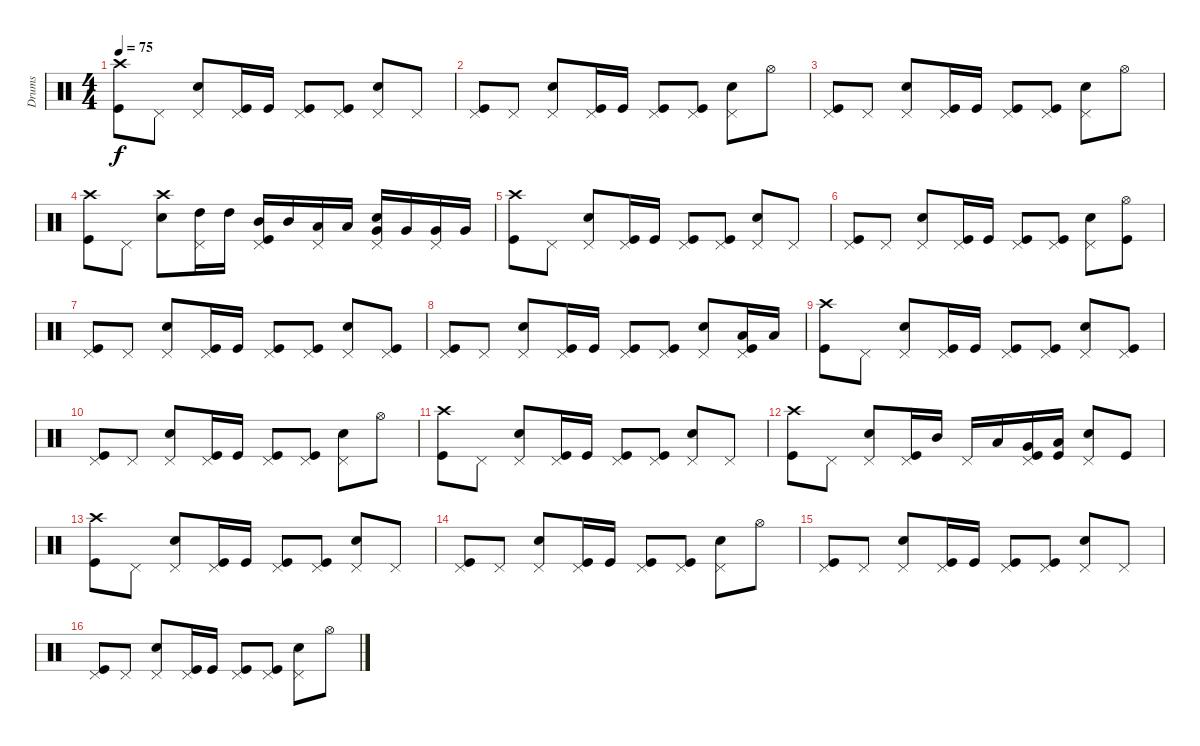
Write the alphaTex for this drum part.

\track ("Drums" "Drums") {instrument percussion}
\staff {score}
\articulation defaults
\ts (4 4)
\tempo 75
\clef neutral
\ks c
("Crash high (hit)" "Kick (hit)").8{dy f} "Pedal Hi-Hat (hit)".8 ("Pedal Hi-Hat (hit)" "Electric Snare (hit)").8 ("Pedal Hi-Hat (hit)" "Kick (hit)").16 "Kick (hit)".16 ("Pedal Hi-Hat (hit)" "Kick (hit)").8 ("Pedal Hi-Hat (hit)" "Kick (hit)").8 ("Pedal Hi-Hat (hit)" "Electric Snare (hit)").8 "Pedal Hi-Hat (hit)".8 |
("Pedal Hi-Hat (hit)" "Kick (hit)").8 "Pedal Hi-Hat (hit)".8 ("Pedal Hi-Hat (hit)" "Electric Snare (hit)").8 ("Pedal Hi-Hat (hit)" "Kick (hit)").16 "Kick (hit)".16 ("Pedal Hi-Hat (hit)" "Kick (hit)").8 ("Pedal Hi-Hat (hit)" "Kick (hit)").8 ("Pedal Hi-Hat (hit)" "Electric Snare (hit)").8 "Hi-Hat (open)".8 |
("Pedal Hi-Hat (hit)" "Kick (hit)").8 "Pedal Hi-Hat (hit)".8 ("Pedal Hi-Hat (hit)" "Electric Snare (hit)").8 ("Pedal Hi-Hat (hit)" "Kick (hit)").16 "Kick (hit)".16 ("Pedal Hi-Hat (hit)" "Kick (hit)").8 ("Pedal Hi-Hat (hit)" "Kick (hit)").8 ("Pedal Hi-Hat (hit)" "Electric Snare (hit)").8 "Hi-Hat (open)".8 |
("Crash high (hit)" "Kick (hit)").8 "Pedal Hi-Hat (hit)".8 ("Crash high (hit)" "Electric Snare (hit)").8 ("Pedal Hi-Hat (hit)" "High Tom (hit)").16 "High Tom (hit)".16 ("Pedal Hi-Hat (hit)" "Mid Tom (hit)" "Kick (hit)").16 "Mid Tom (hit)".16 ("Pedal Hi-Hat (hit)" "Low Tom (hit)").16 "Low Tom (hit)".16 ("Pedal Hi-Hat (hit)" "Very Low Tom (hit)" "Electric Snare (hit)").16 "Very Low Tom (hit)".16 ("Pedal Hi-Hat (hit)" "Very Low Tom (hit)").16 "Very Low Tom (hit)".16 |
("Crash high (hit)" "Kick (hit)").8 "Pedal Hi-Hat (hit)".8 ("Pedal Hi-Hat (hit)" "Electric Snare (hit)").8 ("Pedal Hi-Hat (hit)" "Kick (hit)").16 "Kick (hit)".16 ("Pedal Hi-Hat (hit)" "Kick (hit)").8 ("Pedal Hi-Hat (hit)" "Kick (hit)").8 ("Pedal Hi-Hat (hit)" "Electric Snare (hit)").8 "Pedal Hi-Hat (hit)".8 |
("Pedal Hi-Hat (hit)" "Kick (hit)").8 "Pedal Hi-Hat (hit)".8 ("Pedal Hi-Hat (hit)" "Electric Snare (hit)").8 ("Pedal Hi-Hat (hit)" "Kick (hit)").16 "Kick (hit)".16 ("Pedal Hi-Hat (hit)" "Kick (hit)").8 ("Pedal Hi-Hat (hit)" "Kick (hit)").8 ("Pedal Hi-Hat (hit)" "Electric Snare (hit)").8 ("Hi-Hat (open)" "Kick (hit)").8 |
("Pedal Hi-Hat (hit)" "Kick (hit)").8 "Pedal Hi-Hat (hit)".8 ("Pedal Hi-Hat (hit)" "Electric Snare (hit)").8 ("Pedal Hi-Hat (hit)" "Kick (hit)").16 "Kick (hit)".16 ("Pedal Hi-Hat (hit)" "Kick (hit)").8 ("Pedal Hi-Hat (hit)" "Kick (hit)").8 ("Pedal Hi-Hat (hit)" "Electric Snare (hit)").8 ("Pedal Hi-Hat (hit)" "Kick (hit)").8 |
("Pedal Hi-Hat (hit)" "Kick (hit)").8 "Pedal Hi-Hat (hit)".8 ("Pedal Hi-Hat (hit)" "Electric Snare (hit)").8 ("Pedal Hi-Hat (hit)" "Kick (hit)").16 "Kick (hit)".16 ("Pedal Hi-Hat (hit)" "Kick (hit)").8 ("Pedal Hi-Hat (hit)" "Kick (hit)").8 ("Pedal Hi-Hat (hit)" "Electric Snare (hit)").8 ("Pedal Hi-Hat (hit)" "Low Tom (hit)" "Kick (hit)").16 "Low Tom (hit)".16 |
("Crash high (hit)" "Kick (hit)").8 "Pedal Hi-Hat (hit)".8 ("Pedal Hi-Hat (hit)" "Electric Snare (hit)").8 ("Pedal Hi-Hat (hit)" "Kick (hit)").16 "Kick (hit)".16 ("Pedal Hi-Hat (hit)" "Kick (hit)").8 ("Pedal Hi-Hat (hit)" "Kick (hit)").8 ("Pedal Hi-Hat (hit)" "Electric Snare (hit)").8 ("Pedal Hi-Hat (hit)" "Kick (hit)").8 |
("Pedal Hi-Hat (hit)" "Kick (hit)").8 "Pedal Hi-Hat (hit)".8 ("Pedal Hi-Hat (hit)" "Electric Snare (hit)").8 ("Pedal Hi-Hat (hit)" "Kick (hit)").16 "Kick (hit)".16 ("Pedal Hi-Hat (hit)" "Kick (hit)").8 ("Pedal Hi-Hat (hit)" "Kick (hit)").8 ("Pedal Hi-Hat (hit)" "Electric Snare (hit)").8 "Hi-Hat (open)".8 |
("Crash high (hit)" "Kick (hit)").8 "Pedal Hi-Hat (hit)".8 ("Pedal Hi-Hat (hit)" "Electric Snare (hit)").8 ("Pedal Hi-Hat (hit)" "Kick (hit)").16 "Kick (hit)".16 ("Pedal Hi-Hat (hit)" "Kick (hit)").8 ("Pedal Hi-Hat (hit)" "Kick (hit)").8 ("Pedal Hi-Hat (hit)" "Electric Snare (hit)").8 "Pedal Hi-Hat (hit)".8 |
("Crash high (hit)" "Kick (hit)").8 "Pedal Hi-Hat (hit)".8 ("Pedal Hi-Hat (hit)" "Electric Snare (hit)").8 ("Pedal Hi-Hat (hit)" "Kick (hit)").16 "Mid Tom (hit)".16 "Pedal Hi-Hat (hit)".16 "Low Tom (hit)".16 ("Pedal Hi-Hat (hit)" "Very Low Tom (hit)" "Kick (hit)").16 ("Low Floor Tom (hit)" "Kick (hit)").16 ("Pedal Hi-Hat (hit)" "Electric Snare (hit)").8 "Kick (hit)".8 |
("Crash high (hit)" "Kick (hit)").8 "Pedal Hi-Hat (hit)".8 ("Pedal Hi-Hat (hit)" "Electric Snare (hit)").8 ("Pedal Hi-Hat (hit)" "Kick (hit)").16 "Kick (hit)".16 ("Pedal Hi-Hat (hit)" "Kick (hit)").8 ("Pedal Hi-Hat (hit)" "Kick (hit)").8 ("Pedal Hi-Hat (hit)" "Electric Snare (hit)").8 "Pedal Hi-Hat (hit)".8 |
("Pedal Hi-Hat (hit)" "Kick (hit)").8 "Pedal Hi-Hat (hit)".8 ("Pedal Hi-Hat (hit)" "Electric Snare (hit)").8 ("Pedal Hi-Hat (hit)" "Kick (hit)").16 "Kick (hit)".16 ("Pedal Hi-Hat (hit)" "Kick (hit)").8 ("Pedal Hi-Hat (hit)" "Kick (hit)").8 ("Pedal Hi-Hat (hit)" "Electric Snare (hit)").8 "Hi-Hat (open)".8 |
("Pedal Hi-Hat (hit)" "Kick (hit)").8 "Pedal Hi-Hat (hit)".8 ("Pedal Hi-Hat (hit)" "Electric Snare (hit)").8 ("Pedal Hi-Hat (hit)" "Kick (hit)").16 "Kick (hit)".16 ("Pedal Hi-Hat (hit)" "Kick (hit)").8 ("Pedal Hi-Hat (hit)" "Kick (hit)").8 ("Pedal Hi-Hat (hit)" "Electric Snare (hit)").8 "Pedal Hi-Hat (hit)".8 |
("Pedal Hi-Hat (hit)" "Kick (hit)").8 "Pedal Hi-Hat (hit)".8 ("Pedal Hi-Hat (hit)" "Electric Snare (hit)").8 ("Pedal Hi-Hat (hit)" "Kick (hit)").16 "Kick (hit)".16 ("Pedal Hi-Hat (hit)" "Kick (hit)").8 ("Pedal Hi-Hat (hit)" "Kick (hit)").8 ("Pedal Hi-Hat (hit)" "Electric Snare (hit)").8 "Hi-Hat (open)".8
